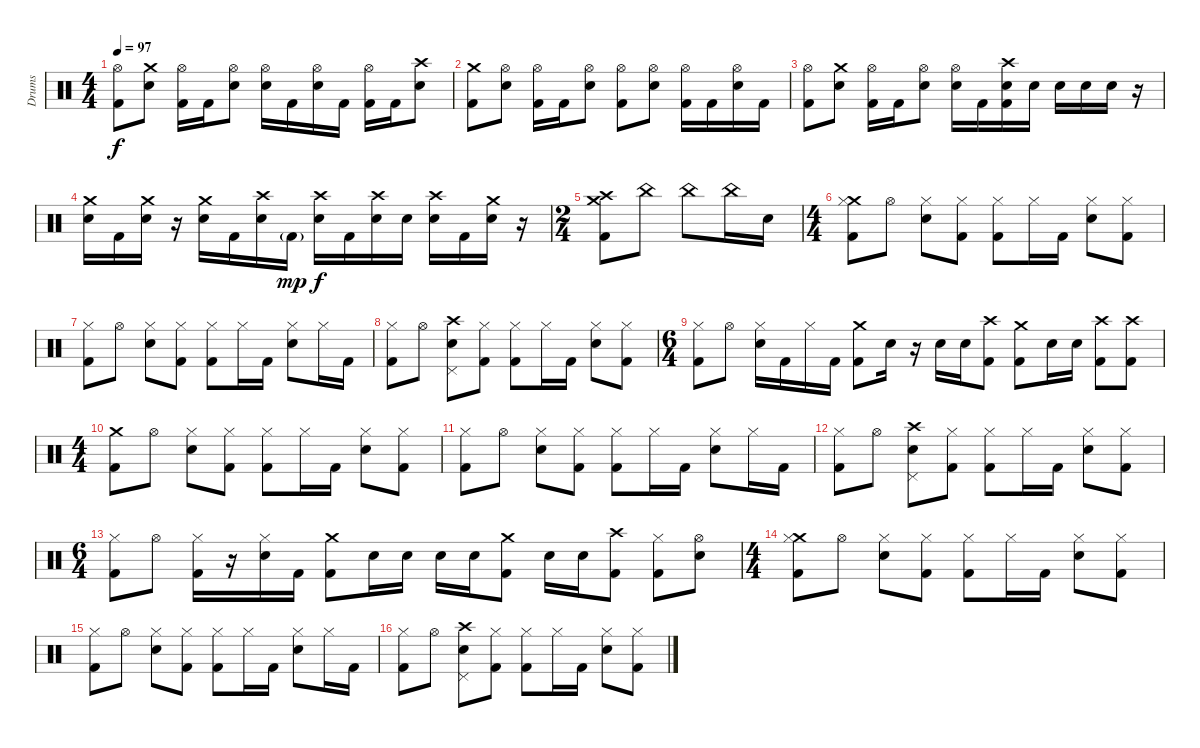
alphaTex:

\track ("Drums" "Drums") {instrument percussion}
\staff {score}
\articulation defaults
\ts (4 4)
\tempo 97
\clef neutral
\ks c
("Hi-Hat (open)" "Kick (hit) 2").8{dy f} ("Crash medium (hit)" "Snare (hit) 2").8 ("Hi-Hat (open)" "Kick (hit) 2").16 "Kick (hit) 2".16 ("Hi-Hat (open)" "Snare (hit) 2").8 ("Hi-Hat (open)" "Snare (hit) 2").16 "Kick (hit) 2".16 ("Hi-Hat (open)" "Snare (hit) 2").16 "Kick (hit) 2".16 ("Hi-Hat (open)" "Kick (hit) 2").16 "Kick (hit) 2".16 ("Crash high (hit)" "Snare (hit) 2").8 |
("Crash medium (hit)" "Kick (hit) 2").8 ("Hi-Hat (open)" "Snare (hit) 2").8 ("Hi-Hat (open)" "Kick (hit) 2").16 "Kick (hit) 2".16 ("Hi-Hat (open)" "Snare (hit) 2").8 ("Hi-Hat (open)" "Kick (hit) 2").8 ("Hi-Hat (open)" "Snare (hit) 2").8 ("Hi-Hat (open)" "Kick (hit) 2").16 "Kick (hit) 2".16 ("Hi-Hat (open)" "Snare (hit) 2").16 "Kick (hit) 2".16 |
("Hi-Hat (open)" "Kick (hit) 2").8 ("Crash medium (hit)" "Snare (hit) 2").8 ("Hi-Hat (open)" "Kick (hit) 2").16 "Kick (hit) 2".16 ("Hi-Hat (open)" "Snare (hit) 2").8 ("Hi-Hat (open)" "Snare (hit) 2").16 "Kick (hit) 2".16 ("Crash high (hit)" "Snare (hit) 2" "Kick (hit) 2").16 "Snare (hit) 2".16 "Snare (hit) 2".16 "Snare (hit) 2".16 "Snare (hit) 2".16 r.16 |
("Crash medium (hit)" "Snare (hit) 2").16 "Kick (hit) 2".16 ("Crash medium (hit)" "Snare (hit) 2").16 r.16 ("Crash medium (hit)" "Snare (hit) 2").16 "Kick (hit) 2".16 ("Crash high (hit)" "Snare (hit) 2").16 "Kick (hit) 2"{g}.16{dy mp} ("Crash high (hit)" "Snare (hit) 2").16{dy f} "Kick (hit) 2".16 ("Crash high (hit)" "Snare (hit) 2").16 "Snare (hit) 2".16 ("Crash high (hit)" "Snare (hit) 2").16 "Kick (hit) 2".16 ("Crash medium (hit)" "Snare (hit) 2").16 r.16 |
\ts (2 4)
("Crash high (hit)" "Crash medium (hit)" "Kick (hit) 2").8 "China (hit)".8 "China (hit)".8 "China (hit)".16 "Snare (hit) 2".16 |
\ts (4 4)
("Crash medium (hit)" "Hi-Hat (closed)" "Kick (hit) 2").8 "Hi-Hat (open)".8 ("Hi-Hat (closed)" "Snare (hit) 2").8 ("Hi-Hat (closed)" "Kick (hit) 2").8 ("Hi-Hat (closed)" "Kick (hit) 2").8 "Hi-Hat (closed)".16 "Kick (hit) 2".16 ("Hi-Hat (closed)" "Snare (hit) 2").8 ("Hi-Hat (closed)" "Kick (hit) 2").8 |
("Hi-Hat (closed)" "Kick (hit) 2").8 "Hi-Hat (open)".8 ("Hi-Hat (closed)" "Snare (hit) 2").8 ("Hi-Hat (closed)" "Kick (hit) 2").8 ("Hi-Hat (closed)" "Kick (hit) 2").8 "Hi-Hat (closed)".16 "Kick (hit) 2".16 ("Hi-Hat (closed)" "Snare (hit) 2").8 "Hi-Hat (closed)".16 "Kick (hit) 2".16 |
("Hi-Hat (closed)" "Kick (hit) 2").8 "Hi-Hat (open)".8 ("Crash high (hit)" "Pedal Hi-Hat (hit)" "Snare (hit) 2").8 ("Hi-Hat (closed)" "Kick (hit) 2").8 ("Hi-Hat (closed)" "Kick (hit) 2").8 "Hi-Hat (closed)".16 "Kick (hit) 2".16 ("Hi-Hat (closed)" "Snare (hit) 2").8 ("Hi-Hat (closed)" "Kick (hit) 2").8 |
\ts (6 4)
("Hi-Hat (closed)" "Kick (hit) 2").8 "Hi-Hat (open)".8 ("Hi-Hat (closed)" "Snare (hit) 2").16 "Kick (hit) 2".16 "Hi-Hat (closed)".16 "Kick (hit) 2".16 ("Crash medium (hit)" "Kick (hit) 2").8 "Snare (hit) 2".16 r.16 "Snare (hit) 2".16 "Snare (hit) 2".16 ("Crash high (hit)" "Kick (hit) 2").8 ("Crash medium (hit)" "Kick (hit) 2").8 "Snare (hit) 2".16 "Snare (hit) 2".16 ("Crash high (hit)" "Kick (hit) 2").8 ("Crash high (hit)" "Kick (hit) 2").8 |
\ts (4 4)
("Crash medium (hit)" "Kick (hit) 2").8 "Hi-Hat (open)".8 ("Hi-Hat (closed)" "Snare (hit) 2").8 ("Hi-Hat (closed)" "Kick (hit) 2").8 ("Hi-Hat (closed)" "Kick (hit) 2").8 "Hi-Hat (closed)".16 "Kick (hit) 2".16 ("Hi-Hat (closed)" "Snare (hit) 2").8 ("Hi-Hat (closed)" "Kick (hit) 2").8 |
("Hi-Hat (closed)" "Kick (hit) 2").8 "Hi-Hat (open)".8 ("Hi-Hat (closed)" "Snare (hit) 2").8 ("Hi-Hat (closed)" "Kick (hit) 2").8 ("Hi-Hat (closed)" "Kick (hit) 2").8 "Hi-Hat (closed)".16 "Kick (hit) 2".16 ("Hi-Hat (closed)" "Snare (hit) 2").8 "Hi-Hat (closed)".16 "Kick (hit) 2".16 |
("Hi-Hat (closed)" "Kick (hit) 2").8 "Hi-Hat (open)".8 ("Crash high (hit)" "Pedal Hi-Hat (hit)" "Snare (hit) 2").8 ("Hi-Hat (closed)" "Kick (hit) 2").8 ("Hi-Hat (closed)" "Kick (hit) 2").8 "Hi-Hat (closed)".16 "Kick (hit) 2".16 ("Hi-Hat (closed)" "Snare (hit) 2").8 ("Hi-Hat (closed)" "Kick (hit) 2").8 |
\ts (6 4)
("Hi-Hat (closed)" "Kick (hit) 2").8 "Hi-Hat (open)".8 ("Hi-Hat (closed)" "Kick (hit) 2").16 r.16 ("Hi-Hat (closed)" "Snare (hit) 2").16 "Kick (hit) 2".16 ("Crash medium (hit)" "Kick (hit) 2").8 "Snare (hit) 2".16 "Snare (hit) 2".16 "Snare (hit) 2".16 "Snare (hit) 2".16 ("Crash medium (hit)" "Kick (hit) 2").8 "Snare (hit) 2".16 "Snare (hit) 2".16 ("Crash high (hit)" "Kick (hit) 2").8 ("Hi-Hat (closed)" "Kick (hit) 2").8 ("Hi-Hat (open)" "Snare (hit) 2").8 |
\ts (4 4)
("Crash medium (hit)" "Hi-Hat (closed)" "Kick (hit) 2").8 "Hi-Hat (open)".8 ("Hi-Hat (closed)" "Snare (hit) 2").8 ("Hi-Hat (closed)" "Kick (hit) 2").8 ("Hi-Hat (closed)" "Kick (hit) 2").8 "Hi-Hat (closed)".16 "Kick (hit) 2".16 ("Hi-Hat (closed)" "Snare (hit) 2").8 ("Hi-Hat (closed)" "Kick (hit) 2").8 |
("Hi-Hat (closed)" "Kick (hit) 2").8 "Hi-Hat (open)".8 ("Hi-Hat (closed)" "Snare (hit) 2").8 ("Hi-Hat (closed)" "Kick (hit) 2").8 ("Hi-Hat (closed)" "Kick (hit) 2").8 "Hi-Hat (closed)".16 "Kick (hit) 2".16 ("Hi-Hat (closed)" "Snare (hit) 2").8 "Hi-Hat (closed)".16 "Kick (hit) 2".16 |
("Hi-Hat (closed)" "Kick (hit) 2").8 "Hi-Hat (open)".8 ("Crash high (hit)" "Pedal Hi-Hat (hit)" "Snare (hit) 2").8 ("Hi-Hat (closed)" "Kick (hit) 2").8 ("Hi-Hat (closed)" "Kick (hit) 2").8 "Hi-Hat (closed)".16 "Kick (hit) 2".16 ("Hi-Hat (closed)" "Snare (hit) 2").8 ("Hi-Hat (closed)" "Kick (hit) 2").8
